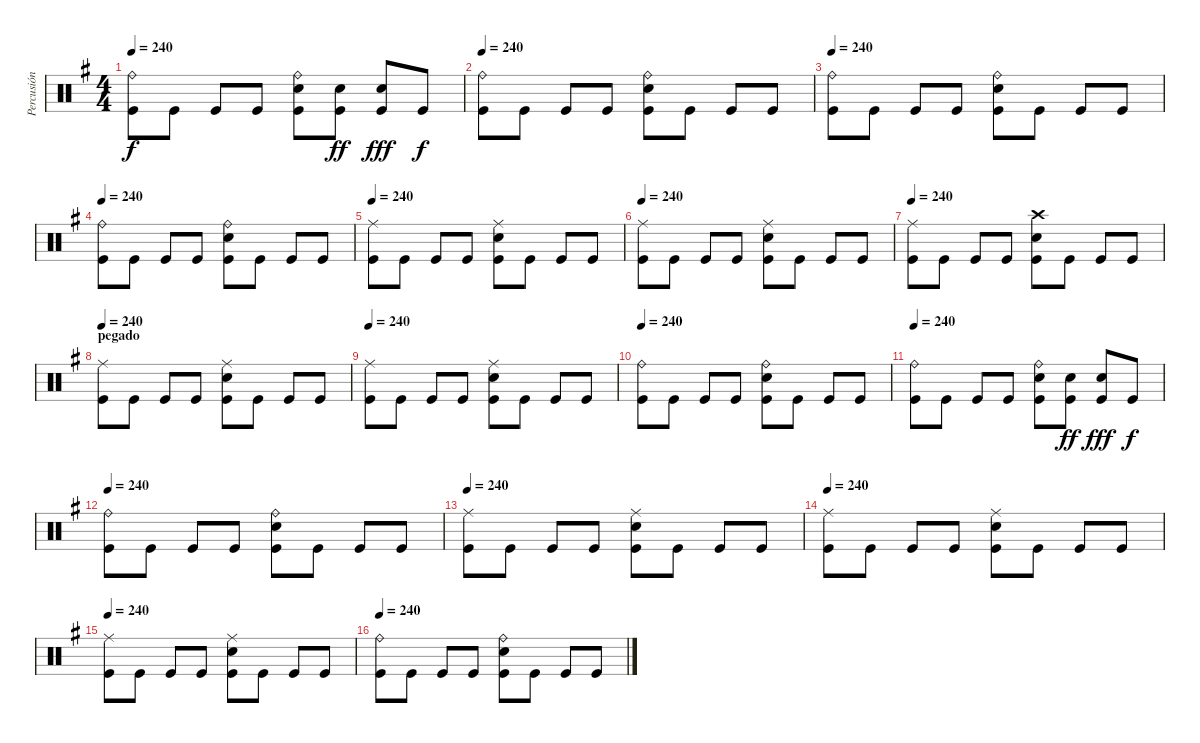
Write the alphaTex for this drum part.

\track ("Percusión" "Percusión") {instrument percussion}
\staff {score}
\articulation defaults
\ts (4 4)
\tempo 240
\clef neutral
\ks g
("Ride (bell)" "Kick (hit)").8{dy f} "Kick (hit)".8 "Kick (hit)".8 "Kick (hit)".8 ("Ride (bell)" "Kick (hit)" "Snare (hit) 2").8 ("Kick (hit)" "Snare (hit) 2").8{dy ff} ("Kick (hit)" "Snare (hit) 2").8{dy fff} "Kick (hit)".8{dy f} |
\tempo 240
("Ride (bell)" "Kick (hit)").8 "Kick (hit)".8 "Kick (hit)".8 "Kick (hit)".8 ("Ride (bell)" "Kick (hit)" "Snare (hit) 2").8 "Kick (hit)".8 "Kick (hit)".8 "Kick (hit)".8 |
\tempo 240
("Ride (bell)" "Kick (hit)").8 "Kick (hit)".8 "Kick (hit)".8 "Kick (hit)".8 ("Ride (bell)" "Kick (hit)" "Snare (hit) 2").8 "Kick (hit)".8 "Kick (hit)".8 "Kick (hit)".8 |
\tempo 240
("Ride (bell)" "Kick (hit)").8 "Kick (hit)".8 "Kick (hit)".8 "Kick (hit)".8 ("Ride (bell)" "Kick (hit)" "Snare (hit) 2").8 "Kick (hit)".8 "Kick (hit)".8 "Kick (hit)".8 |
\tempo 240
("Ride (middle)" "Kick (hit)").8 "Kick (hit)".8 "Kick (hit)".8 "Kick (hit)".8 ("Ride (middle)" "Kick (hit)" "Snare (hit) 2").8 "Kick (hit)".8 "Kick (hit)".8 "Kick (hit)".8 |
\tempo 240
("Ride (middle)" "Kick (hit)").8 "Kick (hit)".8 "Kick (hit)".8 "Kick (hit)".8 ("Ride (middle)" "Kick (hit)" "Snare (hit) 2").8 "Kick (hit)".8 "Kick (hit)".8 "Kick (hit)".8 |
\tempo 240
("Ride (middle)" "Kick (hit)").8 "Kick (hit)".8 "Kick (hit)".8 "Kick (hit)".8 ("Crash high (hit)" "Kick (hit)" "Snare (hit) 2").8 "Kick (hit)".8 "Kick (hit)".8 "Kick (hit)".8 |
\section ("" "pegado")
\tempo 240
("Ride (middle)" "Kick (hit)").8 "Kick (hit)".8 "Kick (hit)".8 "Kick (hit)".8 ("Ride (middle)" "Kick (hit)" "Snare (hit) 2").8 "Kick (hit)".8 "Kick (hit)".8 "Kick (hit)".8 |
\tempo 240
("Ride (middle)" "Kick (hit)").8 "Kick (hit)".8 "Kick (hit)".8 "Kick (hit)".8 ("Ride (middle)" "Kick (hit)" "Snare (hit) 2").8 "Kick (hit)".8 "Kick (hit)".8 "Kick (hit)".8 |
\tempo 240
("Ride (bell)" "Kick (hit)").8 "Kick (hit)".8 "Kick (hit)".8 "Kick (hit)".8 ("Ride (bell)" "Kick (hit)" "Snare (hit) 2").8 "Kick (hit)".8 "Kick (hit)".8 "Kick (hit)".8 |
\tempo 240
("Ride (bell)" "Kick (hit)").8 "Kick (hit)".8 "Kick (hit)".8 "Kick (hit)".8 ("Ride (bell)" "Kick (hit)" "Snare (hit) 2").8 ("Kick (hit)" "Snare (hit) 2").8{dy ff} ("Kick (hit)" "Snare (hit) 2").8{dy fff} "Kick (hit)".8{dy f} |
\tempo 240
("Ride (bell)" "Kick (hit)").8 "Kick (hit)".8 "Kick (hit)".8 "Kick (hit)".8 ("Ride (bell)" "Kick (hit)" "Snare (hit) 2").8 "Kick (hit)".8 "Kick (hit)".8 "Kick (hit)".8 |
\tempo 240
("Ride (middle)" "Kick (hit)").8 "Kick (hit)".8 "Kick (hit)".8 "Kick (hit)".8 ("Ride (middle)" "Kick (hit)" "Snare (hit) 2").8 "Kick (hit)".8 "Kick (hit)".8 "Kick (hit)".8 |
\tempo 240
("Ride (middle)" "Kick (hit)").8 "Kick (hit)".8 "Kick (hit)".8 "Kick (hit)".8 ("Ride (middle)" "Kick (hit)" "Snare (hit) 2").8 "Kick (hit)".8 "Kick (hit)".8 "Kick (hit)".8 |
\tempo 240
("Ride (middle)" "Kick (hit)").8 "Kick (hit)".8 "Kick (hit)".8 "Kick (hit)".8 ("Ride (middle)" "Kick (hit)" "Snare (hit) 2").8 "Kick (hit)".8 "Kick (hit)".8 "Kick (hit)".8 |
\tempo 240
("Ride (bell)" "Kick (hit)").8 "Kick (hit)".8 "Kick (hit)".8 "Kick (hit)".8 ("Ride (bell)" "Kick (hit)" "Snare (hit) 2").8 "Kick (hit)".8 "Kick (hit)".8 "Kick (hit)".8
